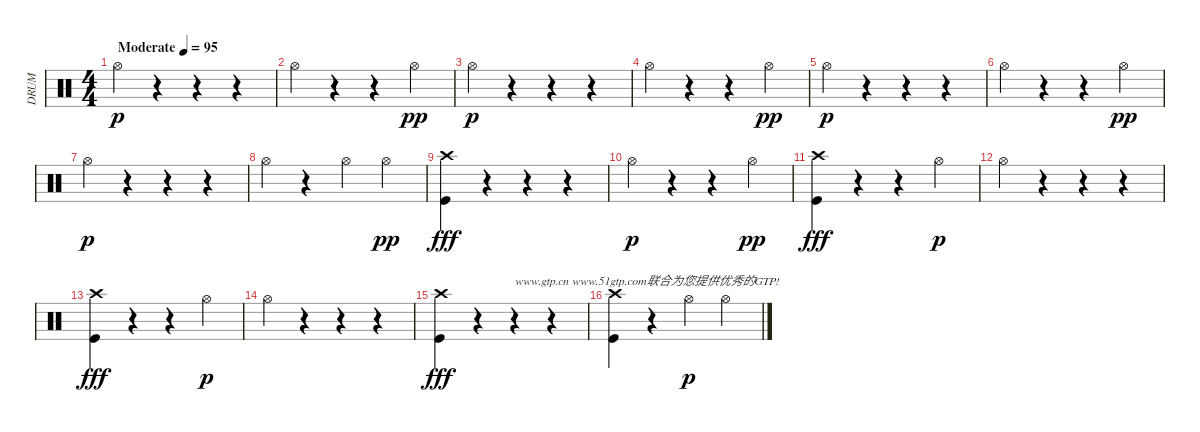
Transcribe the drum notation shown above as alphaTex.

\track ("DRUM" "DRUM") {instrument percussion}
\staff {score}
\articulation defaults
\ts (4 4)
\tempo (95 "Moderate")
\clef neutral
\ks c "Hi-Hat (open)".4{dy p}
r.4 r.4 r.4 |
"Hi-Hat (open)".4 r.4 r.4 "Hi-Hat (open)".4{dy pp} |
"Hi-Hat (open)".4{dy p} r.4 r.4 r.4 |
"Hi-Hat (open)".4 r.4 r.4 "Hi-Hat (open)".4{dy pp} |
"Hi-Hat (open)".4{dy p} r.4 r.4 r.4 |
"Hi-Hat (open)".4 r.4 r.4 "Hi-Hat (open)".4{dy pp} |
"Hi-Hat (open)".4{dy p} r.4 r.4 r.4 |
"Hi-Hat (open)".4 r.4 "Hi-Hat (open)".4 "Hi-Hat (open)".4{dy pp} |
("Crash high (hit)" "Kick (hit)").4{dy fff} r.4 r.4 r.4 |
"Hi-Hat (open)".4{dy p} r.4 r.4 "Hi-Hat (open)".4{dy pp} |
("Crash high (hit)" "Kick (hit)").4{dy fff} r.4 r.4 "Hi-Hat (open)".4{dy p} |
"Hi-Hat (open)".4 r.4 r.4 r.4 |
("Crash high (hit)" "Kick (hit)").4{dy fff} r.4 r.4 "Hi-Hat (open)".4{dy p} |
"Hi-Hat (open)".4 r.4 r.4 r.4 |
("Crash high (hit)" "Kick (hit)").4{dy fff} r.4 r.4{txt "www.gtp.cn www.51gtp.com联合为您提供优秀的GTP!"} r.4 |
("Crash high (hit)" "Kick (hit)").4 r.4 "Hi-Hat (open)".4{dy p} "Hi-Hat (open)".4
